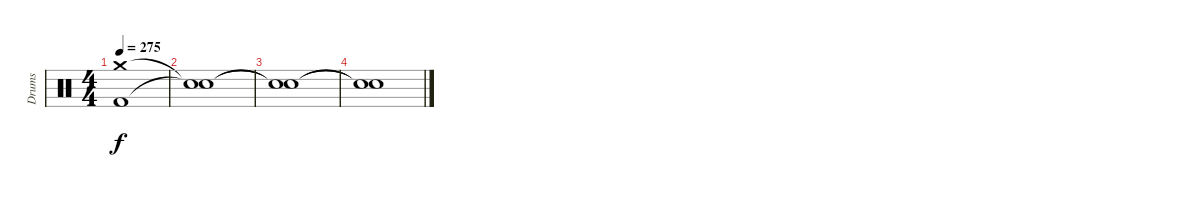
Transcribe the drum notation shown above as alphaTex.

\track ("Drums" "Drums") {instrument percussion}
\staff {score}
\articulation defaults
\ts (4 4)
\tempo 275
\clef neutral
\ks c
("Crash medium (hit)" "Kick (hit) 2").1{dy f} |
("Snare (hit)"{t} "Snare (hit)"{t}).1 |
("Snare (hit)"{t} "Snare (hit)"{t}).1 |
("Snare (hit)"{t} "Snare (hit)"{t}).1
